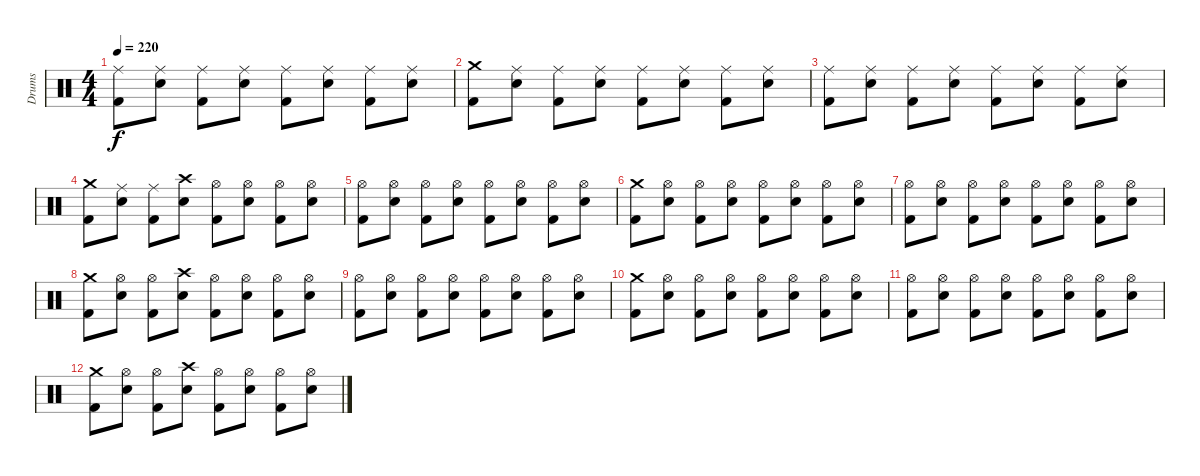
\track ("Drums" "Drums") {instrument percussion}
\staff {score}
\articulation defaults
\ts (4 4)
\tempo 220
\clef neutral
\ks c
("Ride (middle)" "Kick (hit) 2").8{dy f} ("Ride (middle)" "Electric Snare (hit)").8 ("Ride (middle)" "Kick (hit) 2").8 ("Ride (middle)" "Electric Snare (hit)").8 ("Ride (middle)" "Kick (hit) 2").8 ("Ride (middle)" "Electric Snare (hit)").8 ("Ride (middle)" "Kick (hit) 2").8 ("Ride (middle)" "Electric Snare (hit)").8 |
("Crash medium (hit)" "Kick (hit) 2").8 ("Ride (middle)" "Electric Snare (hit)").8 ("Ride (middle)" "Kick (hit) 2").8 ("Ride (middle)" "Electric Snare (hit)").8 ("Ride (middle)" "Kick (hit) 2").8 ("Ride (middle)" "Electric Snare (hit)").8 ("Ride (middle)" "Kick (hit) 2").8 ("Ride (middle)" "Electric Snare (hit)").8 |
("Ride (middle)" "Kick (hit) 2").8 ("Ride (middle)" "Electric Snare (hit)").8 ("Ride (middle)" "Kick (hit) 2").8 ("Ride (middle)" "Electric Snare (hit)").8 ("Ride (middle)" "Kick (hit) 2").8 ("Ride (middle)" "Electric Snare (hit)").8 ("Ride (middle)" "Kick (hit) 2").8 ("Ride (middle)" "Electric Snare (hit)").8 |
("Crash medium (hit)" "Kick (hit) 2").8 ("Ride (middle)" "Electric Snare (hit)").8 ("Ride (middle)" "Kick (hit) 2").8 ("Crash high (hit)" "Electric Snare (hit)").8 ("Hi-Hat (open)" "Kick (hit) 2").8 ("Hi-Hat (open)" "Electric Snare (hit)").8 ("Hi-Hat (open)" "Kick (hit) 2").8 ("Hi-Hat (open)" "Electric Snare (hit)").8 |
("Hi-Hat (open)" "Kick (hit) 2").8 ("Hi-Hat (open)" "Electric Snare (hit)").8 ("Hi-Hat (open)" "Kick (hit) 2").8 ("Hi-Hat (open)" "Electric Snare (hit)").8 ("Hi-Hat (open)" "Kick (hit) 2").8 ("Hi-Hat (open)" "Electric Snare (hit)").8 ("Hi-Hat (open)" "Kick (hit) 2").8 ("Hi-Hat (open)" "Electric Snare (hit)").8 |
("Crash medium (hit)" "Kick (hit) 2").8 ("Hi-Hat (open)" "Electric Snare (hit)").8 ("Hi-Hat (open)" "Kick (hit) 2").8 ("Hi-Hat (open)" "Electric Snare (hit)").8 ("Hi-Hat (open)" "Kick (hit) 2").8 ("Hi-Hat (open)" "Electric Snare (hit)").8 ("Hi-Hat (open)" "Kick (hit) 2").8 ("Hi-Hat (open)" "Electric Snare (hit)").8 |
("Hi-Hat (open)" "Kick (hit) 2").8 ("Hi-Hat (open)" "Electric Snare (hit)").8 ("Hi-Hat (open)" "Kick (hit) 2").8 ("Hi-Hat (open)" "Electric Snare (hit)").8 ("Hi-Hat (open)" "Kick (hit) 2").8 ("Hi-Hat (open)" "Electric Snare (hit)").8 ("Hi-Hat (open)" "Kick (hit) 2").8 ("Hi-Hat (open)" "Electric Snare (hit)").8 |
("Crash medium (hit)" "Kick (hit) 2").8 ("Hi-Hat (open)" "Electric Snare (hit)").8 ("Hi-Hat (open)" "Kick (hit) 2").8 ("Crash high (hit)" "Electric Snare (hit)").8 ("Hi-Hat (open)" "Kick (hit) 2").8 ("Hi-Hat (open)" "Electric Snare (hit)").8 ("Hi-Hat (open)" "Kick (hit) 2").8 ("Hi-Hat (open)" "Electric Snare (hit)").8 |
("Hi-Hat (open)" "Kick (hit) 2").8 ("Hi-Hat (open)" "Electric Snare (hit)").8 ("Hi-Hat (open)" "Kick (hit) 2").8 ("Hi-Hat (open)" "Electric Snare (hit)").8 ("Hi-Hat (open)" "Kick (hit) 2").8 ("Hi-Hat (open)" "Electric Snare (hit)").8 ("Hi-Hat (open)" "Kick (hit) 2").8 ("Hi-Hat (open)" "Electric Snare (hit)").8 |
("Crash medium (hit)" "Kick (hit) 2").8 ("Hi-Hat (open)" "Electric Snare (hit)").8 ("Hi-Hat (open)" "Kick (hit) 2").8 ("Hi-Hat (open)" "Electric Snare (hit)").8 ("Hi-Hat (open)" "Kick (hit) 2").8 ("Hi-Hat (open)" "Electric Snare (hit)").8 ("Hi-Hat (open)" "Kick (hit) 2").8 ("Hi-Hat (open)" "Electric Snare (hit)").8 |
("Hi-Hat (open)" "Kick (hit) 2").8 ("Hi-Hat (open)" "Electric Snare (hit)").8 ("Hi-Hat (open)" "Kick (hit) 2").8 ("Hi-Hat (open)" "Electric Snare (hit)").8 ("Hi-Hat (open)" "Kick (hit) 2").8 ("Hi-Hat (open)" "Electric Snare (hit)").8 ("Hi-Hat (open)" "Kick (hit) 2").8 ("Hi-Hat (open)" "Electric Snare (hit)").8 |
("Crash medium (hit)" "Kick (hit) 2").8 ("Hi-Hat (open)" "Electric Snare (hit)").8 ("Hi-Hat (open)" "Kick (hit) 2").8 ("Crash high (hit)" "Electric Snare (hit)").8 ("Hi-Hat (open)" "Kick (hit) 2").8 ("Hi-Hat (open)" "Electric Snare (hit)").8 ("Hi-Hat (open)" "Kick (hit) 2").8 ("Hi-Hat (open)" "Electric Snare (hit)").8
